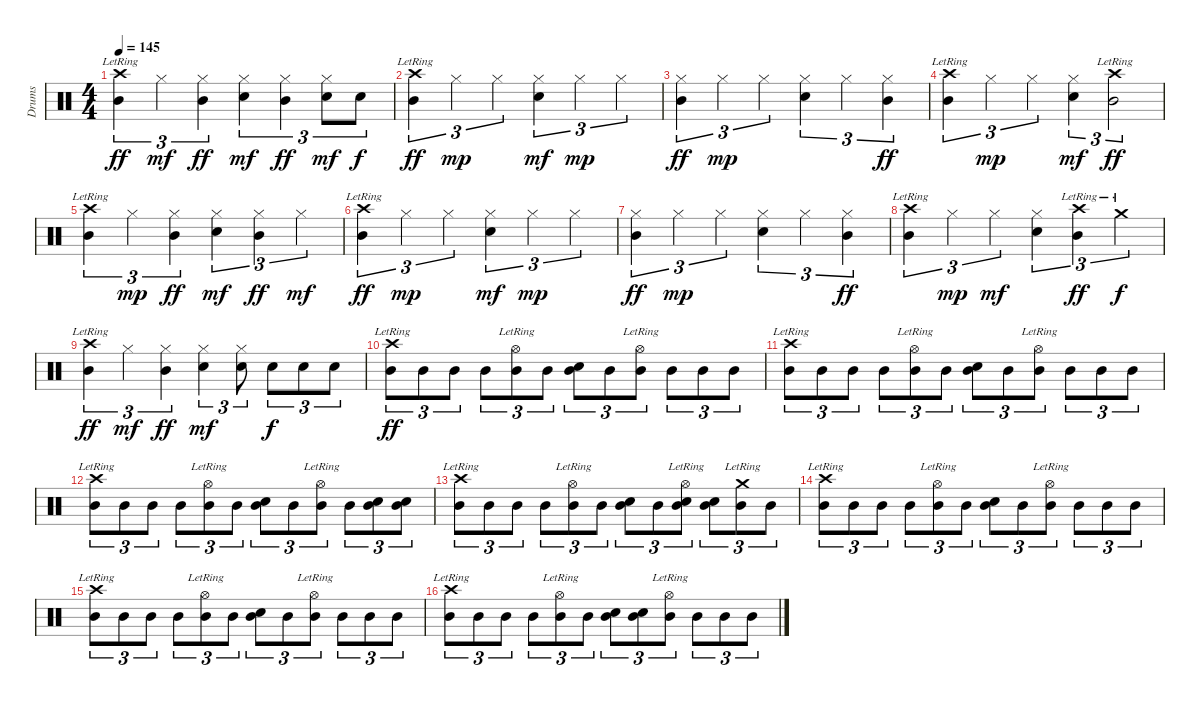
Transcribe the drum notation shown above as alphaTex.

\track ("Drums" "Drums") {instrument percussion}
\staff {score}
\articulation defaults
\ts (4 4)
\tempo 145
\clef neutral
\ks c
("Crash high (hit)"{lr} "Mid Tom (hit)").4{tu (3 2) dy ff} "Hi-Hat (closed)".4{tu (3 2) dy mf} ("Hi-Hat (closed)" "Mid Tom (hit)").4{tu (3 2) dy ff} ("Hi-Hat (closed)" "Electric Snare (hit)").4{tu (3 2) dy mf} ("Hi-Hat (closed)" "Mid Tom (hit)").4{tu (3 2) dy ff} ("Hi-Hat (closed)" "Electric Snare (hit)").8{tu (3 2) dy mf} "Electric Snare (hit)".8{tu (3 2) dy f} |
("Crash high (hit)"{lr} "Mid Tom (hit)").4{tu (3 2) dy ff} "Hi-Hat (closed)".4{tu (3 2) dy mp} "Hi-Hat (closed)".4{tu (3 2)} ("Hi-Hat (closed)" "Electric Snare (hit)").4{tu (3 2) dy mf} "Hi-Hat (closed)".4{tu (3 2) dy mp} "Hi-Hat (closed)".4{tu (3 2)} |
("Hi-Hat (closed)" "Mid Tom (hit)").4{tu (3 2) dy ff} "Hi-Hat (closed)".4{tu (3 2) dy mp} "Hi-Hat (closed)".4{tu (3 2)} ("Hi-Hat (closed)" "Electric Snare (hit)").4{tu (3 2)} "Hi-Hat (closed)".4{tu (3 2)} ("Hi-Hat (closed)" "Mid Tom (hit)").4{tu (3 2) dy ff} |
("Crash high (hit)"{lr} "Mid Tom (hit)").4{tu (3 2)} "Hi-Hat (closed)".4{tu (3 2) dy mp} "Hi-Hat (closed)".4{tu (3 2)} ("Hi-Hat (closed)" "Electric Snare (hit)").4{tu (3 2) dy mf} ("Crash high (hit)"{lr} "Mid Tom (hit)").2{tu (3 2) dy ff} |
("Crash high (hit)"{lr} "Mid Tom (hit)").4{tu (3 2)} "Hi-Hat (closed)".4{tu (3 2) dy mp} ("Hi-Hat (closed)" "Mid Tom (hit)").4{tu (3 2) dy ff} ("Hi-Hat (closed)" "Electric Snare (hit)").4{tu (3 2) dy mf} ("Hi-Hat (closed)" "Mid Tom (hit)").4{tu (3 2) dy ff} "Hi-Hat (closed)".4{tu (3 2) dy mf} |
("Crash high (hit)"{lr} "Mid Tom (hit)").4{tu (3 2) dy ff} "Hi-Hat (closed)".4{tu (3 2) dy mp} "Hi-Hat (closed)".4{tu (3 2)} ("Hi-Hat (closed)" "Electric Snare (hit)").4{tu (3 2) dy mf} "Hi-Hat (closed)".4{tu (3 2) dy mp} "Hi-Hat (closed)".4{tu (3 2)} |
("Hi-Hat (closed)" "Mid Tom (hit)").4{tu (3 2) dy ff} "Hi-Hat (closed)".4{tu (3 2) dy mp} "Hi-Hat (closed)".4{tu (3 2)} ("Hi-Hat (closed)" "Electric Snare (hit)").4{tu (3 2)} "Hi-Hat (closed)".4{tu (3 2)} ("Hi-Hat (closed)" "Mid Tom (hit)").4{tu (3 2) dy ff} |
("Crash high (hit)"{lr} "Mid Tom (hit)").4{tu (3 2)} "Hi-Hat (closed)".4{tu (3 2) dy mp} "Hi-Hat (closed)".4{tu (3 2) dy mf} ("Hi-Hat (closed)" "Electric Snare (hit)").4{tu (3 2)} ("Crash high (hit)"{lr} "Mid Tom (hit)").4{tu (3 2) dy ff} "Crash medium (hit)"{lr}.4{tu (3 2) dy f} |
("Crash high (hit)"{lr} "Mid Tom (hit)").4{tu (3 2) dy ff} "Hi-Hat (closed)".4{tu (3 2) dy mf} ("Hi-Hat (closed)" "Mid Tom (hit)").4{tu (3 2) dy ff} ("Hi-Hat (closed)" "Electric Snare (hit)").4{tu (3 2) dy mf} ("Hi-Hat (closed)" "Electric Snare (hit)").8{tu (3 2)} "Electric Snare (hit)".8{tu (3 2) dy f} "Electric Snare (hit)".8{tu (3 2)} "Electric Snare (hit)".8{tu (3 2)} |
("Crash high (hit)"{lr} "Mid Tom (hit)").8{tu (3 2) dy ff} "Mid Tom (hit)".8{tu (3 2)} "Mid Tom (hit)".8{tu (3 2)} "Mid Tom (hit)".8{tu (3 2)} ("Hi-Hat (open)"{lr} "Mid Tom (hit)").8{tu (3 2)} "Mid Tom (hit)".8{tu (3 2)} ("Electric Snare (hit)" "Mid Tom (hit)").8{tu (3 2)} "Mid Tom (hit)".8{tu (3 2)} ("Hi-Hat (open)"{lr} "Mid Tom (hit)").8{tu (3 2)} "Mid Tom (hit)".8{tu (3 2)} "Mid Tom (hit)".8{tu (3 2)} "Mid Tom (hit)".8{tu (3 2)} |
("Crash high (hit)"{lr} "Mid Tom (hit)").8{tu (3 2)} "Mid Tom (hit)".8{tu (3 2)} "Mid Tom (hit)".8{tu (3 2)} "Mid Tom (hit)".8{tu (3 2)} ("Hi-Hat (open)"{lr} "Mid Tom (hit)").8{tu (3 2)} "Mid Tom (hit)".8{tu (3 2)} ("Electric Snare (hit)" "Mid Tom (hit)").8{tu (3 2)} "Mid Tom (hit)".8{tu (3 2)} ("Hi-Hat (open)"{lr} "Mid Tom (hit)").8{tu (3 2)} "Mid Tom (hit)".8{tu (3 2)} "Mid Tom (hit)".8{tu (3 2)} "Mid Tom (hit)".8{tu (3 2)} |
("Crash high (hit)"{lr} "Mid Tom (hit)").8{tu (3 2)} "Mid Tom (hit)".8{tu (3 2)} "Mid Tom (hit)".8{tu (3 2)} "Mid Tom (hit)".8{tu (3 2)} ("Hi-Hat (open)"{lr} "Mid Tom (hit)").8{tu (3 2)} "Mid Tom (hit)".8{tu (3 2)} ("Electric Snare (hit)" "Mid Tom (hit)").8{tu (3 2)} "Mid Tom (hit)".8{tu (3 2)} ("Hi-Hat (open)"{lr} "Mid Tom (hit)").8{tu (3 2)} "Mid Tom (hit)".8{tu (3 2)} ("Electric Snare (hit)" "Mid Tom (hit)").8{tu (3 2)} ("Electric Snare (hit)" "Mid Tom (hit)").8{tu (3 2)} |
("Crash high (hit)"{lr} "Mid Tom (hit)").8{tu (3 2)} "Mid Tom (hit)".8{tu (3 2)} "Mid Tom (hit)".8{tu (3 2)} "Mid Tom (hit)".8{tu (3 2)} ("Hi-Hat (open)"{lr} "Mid Tom (hit)").8{tu (3 2)} "Mid Tom (hit)".8{tu (3 2)} ("Electric Snare (hit)" "Mid Tom (hit)").8{tu (3 2)} "Mid Tom (hit)".8{tu (3 2)} ("Hi-Hat (open)"{lr} "Electric Snare (hit)" "Mid Tom (hit)").8{tu (3 2)} ("Electric Snare (hit)" "Mid Tom (hit)").8{tu (3 2)} ("Crash medium (hit)"{lr} "Mid Tom (hit)").8{tu (3 2)} "Mid Tom (hit)".8{tu (3 2)} |
("Crash high (hit)"{lr} "Mid Tom (hit)").8{tu (3 2)} "Mid Tom (hit)".8{tu (3 2)} "Mid Tom (hit)".8{tu (3 2)} "Mid Tom (hit)".8{tu (3 2)} ("Hi-Hat (open)"{lr} "Mid Tom (hit)").8{tu (3 2)} "Mid Tom (hit)".8{tu (3 2)} ("Electric Snare (hit)" "Mid Tom (hit)").8{tu (3 2)} "Mid Tom (hit)".8{tu (3 2)} ("Hi-Hat (open)"{lr} "Mid Tom (hit)").8{tu (3 2)} "Mid Tom (hit)".8{tu (3 2)} "Mid Tom (hit)".8{tu (3 2)} "Mid Tom (hit)".8{tu (3 2)} |
("Crash high (hit)"{lr} "Mid Tom (hit)").8{tu (3 2)} "Mid Tom (hit)".8{tu (3 2)} "Mid Tom (hit)".8{tu (3 2)} "Mid Tom (hit)".8{tu (3 2)} ("Hi-Hat (open)"{lr} "Mid Tom (hit)").8{tu (3 2)} "Mid Tom (hit)".8{tu (3 2)} ("Electric Snare (hit)" "Mid Tom (hit)").8{tu (3 2)} "Mid Tom (hit)".8{tu (3 2)} ("Hi-Hat (open)"{lr} "Mid Tom (hit)").8{tu (3 2)} "Mid Tom (hit)".8{tu (3 2)} "Mid Tom (hit)".8{tu (3 2)} "Mid Tom (hit)".8{tu (3 2)} |
("Crash high (hit)"{lr} "Mid Tom (hit)").8{tu (3 2)} "Mid Tom (hit)".8{tu (3 2)} "Mid Tom (hit)".8{tu (3 2)} "Mid Tom (hit)".8{tu (3 2)} ("Hi-Hat (open)"{lr} "Mid Tom (hit)").8{tu (3 2)} "Mid Tom (hit)".8{tu (3 2)} ("Electric Snare (hit)" "Mid Tom (hit)").8{tu (3 2)} ("Electric Snare (hit)" "Mid Tom (hit)").8{tu (3 2)} ("Hi-Hat (open)"{lr} "Mid Tom (hit)").8{tu (3 2)} "Mid Tom (hit)".8{tu (3 2)} "Mid Tom (hit)".8{tu (3 2)} "Mid Tom (hit)".8{tu (3 2)}
